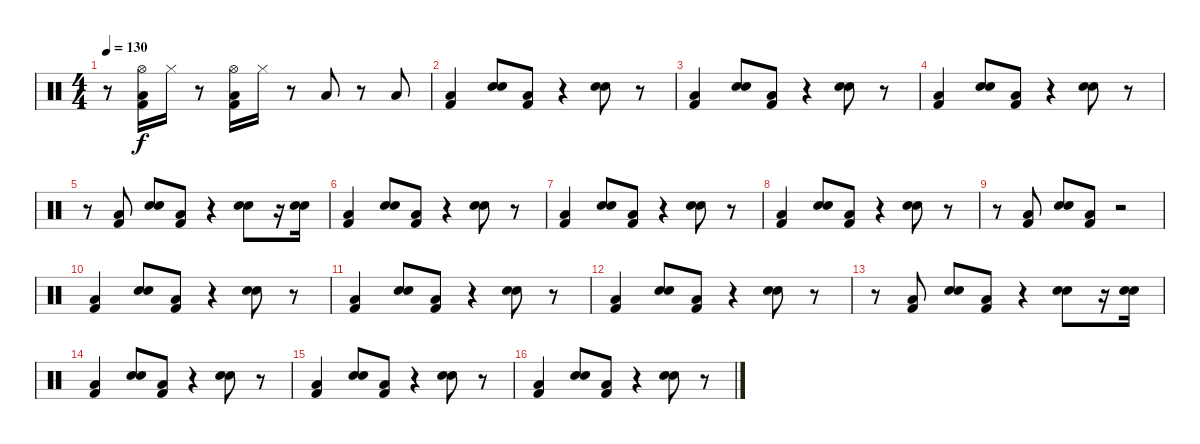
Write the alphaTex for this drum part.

\track "" {instrument percussion}
\staff {score}
\articulation defaults
\ts (4 4)
\tempo 130
\clef neutral
\ks c
r.8{dy f} ("Kick (hit) 2" "Low Floor Tom (hit)" "Hi-Hat (open)").16 "Hi-Hat (closed)".16 r.8 ("Kick (hit) 2" "Low Floor Tom (hit)" "Hi-Hat (open)").16 "Hi-Hat (closed)".16 r.8 "Low Floor Tom (hit)".8 r.8 "Low Floor Tom (hit)".8 |
("Kick (hit) 2" "Low Floor Tom (hit)").4 ("Snare (hit) 2" "Hand Clap (hit)").8 ("Kick (hit) 2" "Low Floor Tom (hit)").8 r.4 ("Snare (hit) 2" "Hand Clap (hit)").8 r.8 |
("Kick (hit) 2" "Low Floor Tom (hit)").4 ("Snare (hit) 2" "Hand Clap (hit)").8 ("Kick (hit) 2" "Low Floor Tom (hit)").8 r.4 ("Snare (hit) 2" "Hand Clap (hit)").8 r.8 |
("Kick (hit) 2" "Low Floor Tom (hit)").4 ("Snare (hit) 2" "Hand Clap (hit)").8 ("Kick (hit) 2" "Low Floor Tom (hit)").8 r.4 ("Snare (hit) 2" "Hand Clap (hit)").8 r.8 |
r.8 ("Kick (hit) 2" "Low Floor Tom (hit)").8 ("Snare (hit) 2" "Hand Clap (hit)").8 ("Kick (hit) 2" "Low Floor Tom (hit)").8 r.4 ("Snare (hit) 2" "Hand Clap (hit)").8 r.16 ("Snare (hit) 2" "Hand Clap (hit)").16 |
("Kick (hit) 2" "Low Floor Tom (hit)").4 ("Snare (hit) 2" "Hand Clap (hit)").8 ("Kick (hit) 2" "Low Floor Tom (hit)").8 r.4 ("Snare (hit) 2" "Hand Clap (hit)").8 r.8 |
("Kick (hit) 2" "Low Floor Tom (hit)").4 ("Snare (hit) 2" "Hand Clap (hit)").8 ("Kick (hit) 2" "Low Floor Tom (hit)").8 r.4 ("Snare (hit) 2" "Hand Clap (hit)").8 r.8 |
("Kick (hit) 2" "Low Floor Tom (hit)").4 ("Snare (hit) 2" "Hand Clap (hit)").8 ("Kick (hit) 2" "Low Floor Tom (hit)").8 r.4 ("Snare (hit) 2" "Hand Clap (hit)").8 r.8 |
r.8 ("Kick (hit) 2" "Low Floor Tom (hit)").8 ("Snare (hit) 2" "Hand Clap (hit)").8 ("Kick (hit) 2" "Low Floor Tom (hit)").8 r.2 |
("Kick (hit) 2" "Low Floor Tom (hit)").4 ("Snare (hit) 2" "Hand Clap (hit)").8 ("Kick (hit) 2" "Low Floor Tom (hit)").8 r.4 ("Snare (hit) 2" "Hand Clap (hit)").8 r.8 |
("Kick (hit) 2" "Low Floor Tom (hit)").4 ("Snare (hit) 2" "Hand Clap (hit)").8 ("Kick (hit) 2" "Low Floor Tom (hit)").8 r.4 ("Snare (hit) 2" "Hand Clap (hit)").8 r.8 |
("Kick (hit) 2" "Low Floor Tom (hit)").4 ("Snare (hit) 2" "Hand Clap (hit)").8 ("Kick (hit) 2" "Low Floor Tom (hit)").8 r.4 ("Snare (hit) 2" "Hand Clap (hit)").8 r.8 |
r.8 ("Kick (hit) 2" "Low Floor Tom (hit)").8 ("Snare (hit) 2" "Hand Clap (hit)").8 ("Kick (hit) 2" "Low Floor Tom (hit)").8 r.4 ("Snare (hit) 2" "Hand Clap (hit)").8 r.16 ("Snare (hit) 2" "Hand Clap (hit)").16 |
("Kick (hit) 2" "Low Floor Tom (hit)").4 ("Snare (hit) 2" "Hand Clap (hit)").8 ("Kick (hit) 2" "Low Floor Tom (hit)").8 r.4 ("Snare (hit) 2" "Hand Clap (hit)").8 r.8 |
("Kick (hit) 2" "Low Floor Tom (hit)").4 ("Snare (hit) 2" "Hand Clap (hit)").8 ("Kick (hit) 2" "Low Floor Tom (hit)").8 r.4 ("Snare (hit) 2" "Hand Clap (hit)").8 r.8 |
("Kick (hit) 2" "Low Floor Tom (hit)").4 ("Snare (hit) 2" "Hand Clap (hit)").8 ("Kick (hit) 2" "Low Floor Tom (hit)").8 r.4 ("Snare (hit) 2" "Hand Clap (hit)").8 r.8
